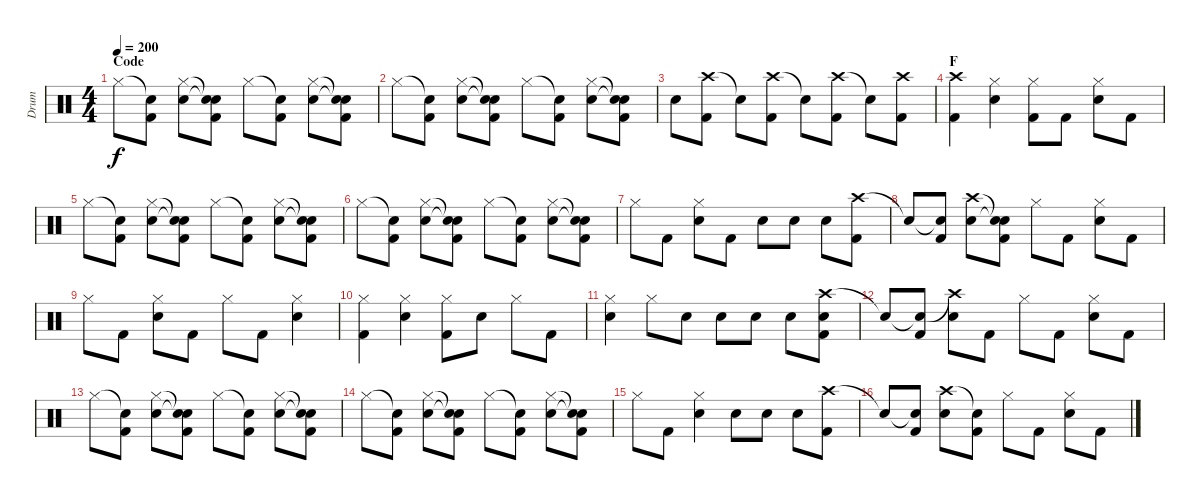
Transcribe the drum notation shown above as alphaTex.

\track ("Drum" "Drum") {instrument percussion}
\staff {score}
\articulation defaults
\ts (4 4)
\section ("" "Code")
\tempo 200
\clef neutral
\ks c "Hi-Hat (closed)".8{dy f}
("Snare (hit)"{t} "Kick (hit) 2").8 ("Hi-Hat (closed)" "Snare (hit) 2").8 ("Snare (hit)"{t} "Snare (hit)"{t} "Kick (hit) 2").8 "Hi-Hat (closed)".8 ("Snare (hit)"{t} "Kick (hit) 2").8 ("Hi-Hat (closed)" "Snare (hit) 2").8 ("Snare (hit)"{t} "Snare (hit)"{t} "Kick (hit) 2").8 |
"Hi-Hat (closed)".8 ("Snare (hit)"{t} "Kick (hit) 2").8 ("Hi-Hat (closed)" "Snare (hit) 2").8 ("Snare (hit)"{t} "Snare (hit)"{t} "Kick (hit) 2").8 "Hi-Hat (closed)".8 ("Snare (hit)"{t} "Kick (hit) 2").8 ("Hi-Hat (closed)" "Snare (hit) 2").8 ("Snare (hit)"{t} "Snare (hit)"{t} "Kick (hit) 2").8 |
"Snare (hit) 2".8 ("Crash high (hit)" "Kick (hit) 2").8 "Snare (hit)"{t}.8 ("Crash high (hit)" "Kick (hit) 2").8 "Snare (hit)"{t}.8 ("Crash high (hit)" "Kick (hit) 2").8 "Snare (hit)"{t}.8 ("Crash high (hit)" "Kick (hit) 2").8 |
\section ("" "F")
("Crash high (hit)" "Kick (hit) 2").4 ("Hi-Hat (closed)" "Snare (hit) 2").4 ("Hi-Hat (closed)" "Kick (hit) 2").8 "Kick (hit) 2".8 ("Hi-Hat (closed)" "Snare (hit) 2").8 "Kick (hit) 2".8 |
"Hi-Hat (closed)".8 ("Snare (hit)"{t} "Kick (hit) 2").8 ("Hi-Hat (closed)" "Snare (hit) 2").8 ("Snare (hit)"{t} "Snare (hit)"{t} "Kick (hit) 2").8 "Hi-Hat (closed)".8 ("Snare (hit)"{t} "Kick (hit) 2").8 ("Hi-Hat (closed)" "Snare (hit) 2").8 ("Snare (hit)"{t} "Snare (hit)"{t} "Kick (hit) 2").8 |
"Hi-Hat (closed)".8 ("Snare (hit)"{t} "Kick (hit) 2").8 ("Hi-Hat (closed)" "Snare (hit) 2").8 ("Snare (hit)"{t} "Snare (hit)"{t} "Kick (hit) 2").8 "Hi-Hat (closed)".8 ("Snare (hit)"{t} "Kick (hit) 2").8 ("Hi-Hat (closed)" "Snare (hit) 2").8 ("Snare (hit)"{t} "Snare (hit)"{t} "Kick (hit) 2").8 |
"Hi-Hat (closed)".8 "Kick (hit) 2".8 ("Hi-Hat (closed)" "Snare (hit) 2").8 "Kick (hit) 2".8 "Snare (hit) 2".8 "Snare (hit) 2".8 "Snare (hit) 2".8 ("Crash high (hit)" "Kick (hit) 2").8 |
"Snare (hit)"{t}.8 ("Snare (hit)"{t} "Kick (hit) 2").8 ("Crash high (hit)" "Snare (hit) 2").8 ("Snare (hit)"{t} "Snare (hit)"{t} "Kick (hit) 2").8 "Hi-Hat (closed)".8 "Kick (hit) 2".8 ("Hi-Hat (closed)" "Snare (hit) 2").8 "Kick (hit) 2".8 |
"Hi-Hat (closed)".8 "Kick (hit) 2".8 ("Hi-Hat (closed)" "Snare (hit) 2").8 "Kick (hit) 2".8 "Hi-Hat (closed)".8 "Kick (hit) 2".8 ("Hi-Hat (closed)" "Snare (hit) 2").4 |
("Hi-Hat (closed)" "Kick (hit) 2").4 ("Hi-Hat (closed)" "Snare (hit) 2").4 ("Hi-Hat (closed)" "Kick (hit) 2").8 "Snare (hit) 2".8 "Hi-Hat (closed)".8 "Kick (hit) 2".8 |
("Hi-Hat (closed)" "Snare (hit) 2").4 "Hi-Hat (closed)".8 "Snare (hit) 2".8 "Snare (hit) 2".8 "Snare (hit) 2".8 "Snare (hit) 2".8 ("Crash high (hit)" "Snare (hit) 2" "Kick (hit) 2").8 |
"Snare (hit)"{t}.8 ("Snare (hit)"{t} "Kick (hit) 2").8 ("Crash high (hit)"{t} "Snare (hit) 2").8 "Kick (hit) 2".8 "Hi-Hat (closed)".8 "Kick (hit) 2".8 ("Hi-Hat (closed)" "Snare (hit) 2").8 "Kick (hit) 2".8 |
"Hi-Hat (closed)".8 ("Snare (hit)"{t} "Kick (hit) 2").8 ("Hi-Hat (closed)" "Snare (hit) 2").8 ("Snare (hit)"{t} "Snare (hit)"{t} "Kick (hit) 2").8 "Hi-Hat (closed)".8 ("Snare (hit)"{t} "Kick (hit) 2").8 ("Hi-Hat (closed)" "Snare (hit) 2").8 ("Snare (hit)"{t} "Snare (hit)"{t} "Kick (hit) 2").8 |
"Hi-Hat (closed)".8 ("Snare (hit)"{t} "Kick (hit) 2").8 ("Hi-Hat (closed)" "Snare (hit) 2").8 ("Snare (hit)"{t} "Snare (hit)"{t} "Kick (hit) 2").8 "Hi-Hat (closed)".8 ("Snare (hit)"{t} "Kick (hit) 2").8 ("Hi-Hat (closed)" "Snare (hit) 2").8 ("Snare (hit)"{t} "Snare (hit)"{t} "Kick (hit) 2").8 |
"Hi-Hat (closed)".8 "Kick (hit) 2".8 ("Hi-Hat (closed)" "Snare (hit) 2").4 "Snare (hit) 2".8 "Snare (hit) 2".8 "Snare (hit) 2".8 ("Crash high (hit)" "Kick (hit) 2").8 |
"Snare (hit)"{t}.8 ("Snare (hit)"{t} "Kick (hit) 2").8 ("Crash high (hit)" "Snare (hit) 2").8 ("Snare (hit)"{t} "Kick (hit) 2").8 "Hi-Hat (closed)".8 "Kick (hit) 2".8 ("Hi-Hat (closed)" "Snare (hit) 2").8 "Kick (hit) 2".8
